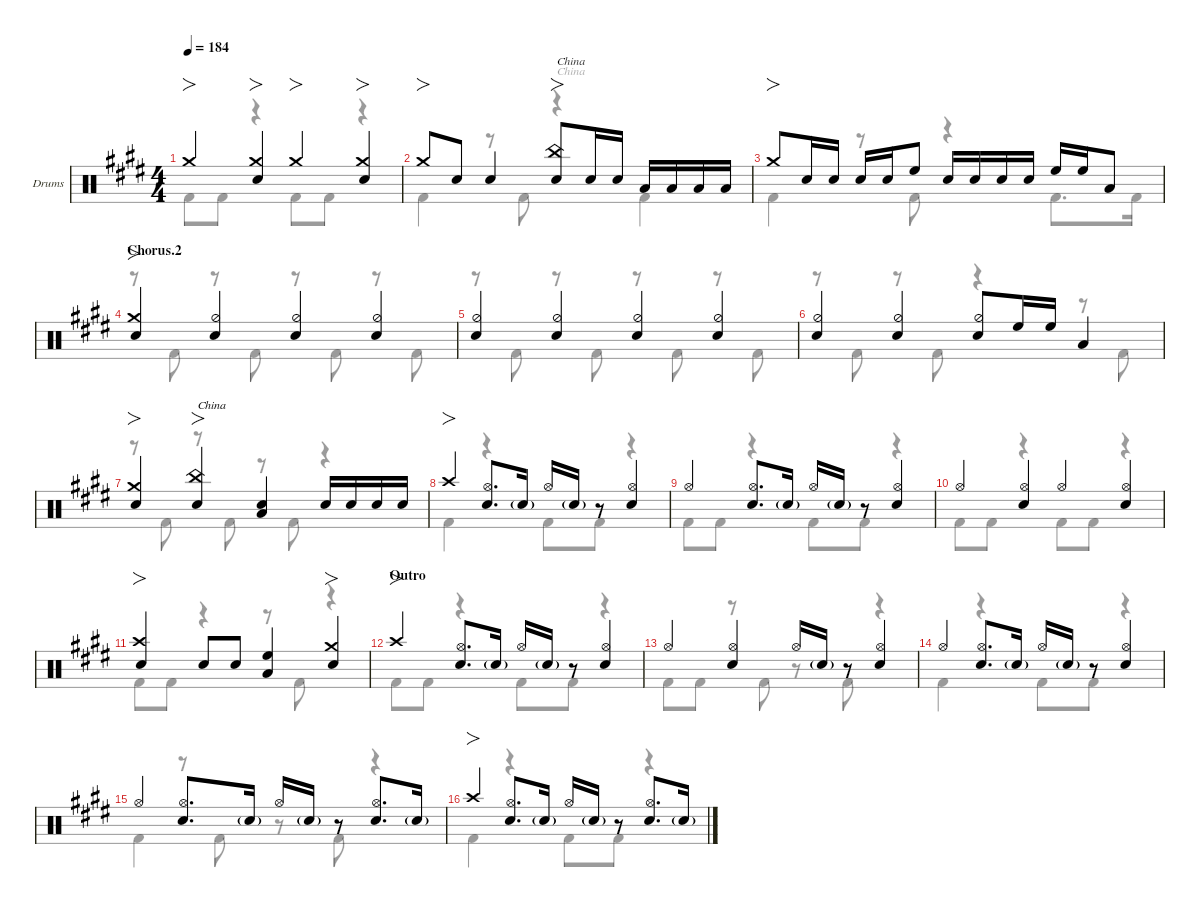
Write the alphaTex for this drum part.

\defaultSystemsLayout 4
\hideDynamics
\bracketExtendMode nobrackets
\firstSystemTrackNameOrientation horizontal
\track ("Drums" "Drums") {defaultSystemsLayout 4 instrument percussion}
\staff {score}
\articulation defaults
\voice
\ts (4 4)
\tempo 184
\clef neutral
\ks e "Crash medium (hit)"{acc forcenatural}.4{fo dy f}
("Crash medium (hit)"{acc forcenatural} "Snare (hit) 2"{acc forcenatural}).4{fo} "Crash medium (hit)"{acc forcenatural}.4{fo} ("Crash medium (hit)"{acc forcenatural} "Snare (hit) 2"{acc forcenatural}).4{fo} |
"Crash medium (hit)"{acc forcenatural}.8{fo} "Snare (hit) 2"{acc forcenatural}.8 "Snare (hit) 2"{acc forcenatural}.4 ("Snare (hit) 2"{acc forcenatural} "China (hit)"{acc forcenatural}).8{fo txt "China"} "Snare (hit) 2"{acc forcenatural}.16 "Snare (hit) 2"{acc forcenatural}.16{beam split} "Low Tom (hit)"{acc forcenatural}.16 "Low Tom (hit)"{acc forcenatural}.16 "Low Tom (hit)"{acc forcenatural}.16 "Low Tom (hit)"{acc forcenatural}.16 |
"Crash medium (hit)"{acc forcenatural}.8{fo} "Snare (hit) 2"{acc forcenatural}.16 "Snare (hit) 2"{acc forcenatural}.16{dy mf beam split} "Snare (hit) 2"{acc forcenatural}.16{dy f} "Snare (hit) 2"{acc forcenatural}.16{dy mf beam merge} "High Floor Tom (hit)"{acc forcenatural}.8{dy f} "Snare (hit) 2"{acc forcenatural}.16 "Snare (hit) 2"{acc forcenatural}.16{dy mf beam merge} "Snare (hit) 2"{acc forcenatural}.16{dy f} "Snare (hit) 2"{acc forcenatural}.16{dy mf beam split} "High Floor Tom (hit)"{acc forcenatural}.16{dy f} "High Floor Tom (hit)"{acc forcenatural}.16 "Low Tom (hit)"{acc forcenatural}.8 |
\section ("" "Chorus.2")
("Crash medium (hit)"{acc forcenatural} "Snare (hit) 2"{acc forcenatural}).4{fo} ("Hi-Hat (half)"{acc forcenatural} "Snare (hit) 2"{acc forcenatural}).4 ("Hi-Hat (half)"{acc forcenatural} "Snare (hit) 2"{acc forcenatural}).4 ("Hi-Hat (half)"{acc forcenatural} "Snare (hit) 2"{acc forcenatural}).4 |
("Hi-Hat (half)"{acc forcenatural} "Snare (hit) 2"{acc forcenatural}).4 ("Hi-Hat (half)"{acc forcenatural} "Snare (hit) 2"{acc forcenatural}).4 ("Hi-Hat (half)"{acc forcenatural} "Snare (hit) 2"{acc forcenatural}).4 ("Hi-Hat (half)"{acc forcenatural} "Snare (hit) 2"{acc forcenatural}).4 |
("Hi-Hat (half)"{acc forcenatural} "Snare (hit) 2"{acc forcenatural}).4 ("Hi-Hat (half)"{acc forcenatural} "Snare (hit) 2"{acc forcenatural}).4 ("Hi-Hat (half)"{acc forcenatural} "Snare (hit) 2"{acc forcenatural}).8 "High Floor Tom (hit)"{acc forcenatural}.16 "High Floor Tom (hit)"{acc forcenatural}.16 "Low Tom (hit)"{acc forcenatural}.4 |
("Crash medium (hit)"{acc forcenatural} "Snare (hit) 2"{acc forcenatural}).4{fo} ("China (hit)"{acc forcenatural} "Snare (hit) 2"{acc forcenatural}).4{fo txt "China"} ("Snare (hit) 2"{acc forcenatural} "Low Tom (hit)"{acc forcenatural}).4 "Snare (hit) 2"{acc forcenatural}.16 "Snare (hit) 2"{acc forcenatural}.16{dy mf beam merge} "Snare (hit) 2"{acc forcenatural}.16{dy f} "Snare (hit) 2"{acc forcenatural}.16{dy mf beam split} |
"Crash high (hit)"{acc forcenatural}.4{fo dy f} ("Hi-Hat (open)"{acc forcenatural} "Snare (hit) 2"{acc forcenatural}).8{d} "Snare (hit) 2"{g acc forcenatural}.16{dy mf} "Hi-Hat (open)"{acc forcenatural}.16{dy f} "Snare (hit) 2"{g acc forcenatural}.16{dy mf beam split} r.8 ("Hi-Hat (open)"{acc forcenatural} "Snare (hit) 2"{acc forcenatural}).4{dy f} |
"Hi-Hat (open)"{acc forcenatural}.4 ("Hi-Hat (open)"{acc forcenatural} "Snare (hit) 2"{acc forcenatural}).8{d} "Snare (hit) 2"{g acc forcenatural}.16{dy mf} "Hi-Hat (open)"{acc forcenatural}.16{dy f} "Snare (hit) 2"{g acc forcenatural}.16{dy mf beam split} r.8 ("Hi-Hat (open)"{acc forcenatural} "Snare (hit) 2"{acc forcenatural}).4{dy f} |
"Hi-Hat (open)"{acc forcenatural}.4 ("Hi-Hat (open)"{acc forcenatural} "Snare (hit) 2"{acc forcenatural}).4 "Hi-Hat (open)"{acc forcenatural}.4 ("Hi-Hat (open)"{acc forcenatural} "Snare (hit) 2"{acc forcenatural}).4 |
("Snare (hit) 2"{acc forcenatural} "Crash high (hit)"{acc forcenatural}).4{fo} "Snare (hit) 2"{acc forcenatural}.8 "Snare (hit) 2"{acc forcenatural}.8 ("Low Tom (hit)"{acc forcenatural} "High Floor Tom (hit)"{acc forcenatural}).4 ("Snare (hit) 2"{acc forcenatural} "Crash medium (hit)"{acc forcenatural}).4{fo} |
\section ("" "Outro")
"Crash high (hit)"{acc forcenatural}.4{fo} ("Hi-Hat (open)"{acc forcenatural} "Snare (hit) 2"{acc forcenatural}).8{d} "Snare (hit) 2"{g acc forcenatural}.16{dy mf} "Hi-Hat (open)"{acc forcenatural}.16{dy f} "Snare (hit) 2"{g acc forcenatural}.16{dy mf beam split} r.8 ("Hi-Hat (open)"{acc forcenatural} "Snare (hit) 2"{acc forcenatural}).4{dy f} |
"Hi-Hat (open)"{acc forcenatural}.4 ("Hi-Hat (open)"{acc forcenatural} "Snare (hit) 2"{acc forcenatural}).4 "Hi-Hat (open)"{acc forcenatural}.16 "Snare (hit) 2"{g acc forcenatural}.16{dy mf beam split} r.8 ("Hi-Hat (open)"{acc forcenatural} "Snare (hit) 2"{acc forcenatural}).4{dy f} |
"Hi-Hat (open)"{acc forcenatural}.4 ("Hi-Hat (open)"{acc forcenatural} "Snare (hit) 2"{acc forcenatural}).8{d} "Snare (hit) 2"{g acc forcenatural}.16{dy mf} "Hi-Hat (open)"{acc forcenatural}.16{dy f} "Snare (hit) 2"{g acc forcenatural}.16{dy mf beam split} r.8 ("Hi-Hat (open)"{acc forcenatural} "Snare (hit) 2"{acc forcenatural}).4{dy f} |
"Hi-Hat (open)"{acc forcenatural}.4 ("Hi-Hat (open)"{acc forcenatural} "Snare (hit) 2"{acc forcenatural}).8{d} "Snare (hit) 2"{g acc forcenatural}.16{dy mf} "Hi-Hat (open)"{acc forcenatural}.16{dy f} "Snare (hit) 2"{g acc forcenatural}.16{dy mf beam split} r.8 ("Hi-Hat (open)"{acc forcenatural} "Snare (hit) 2"{acc forcenatural}).8{d dy f} "Snare (hit) 2"{g acc forcenatural}.16{dy mf} |
"Crash high (hit)"{acc forcenatural}.4{fo dy f} ("Hi-Hat (open)"{acc forcenatural} "Snare (hit) 2"{acc forcenatural}).8{d} "Snare (hit) 2"{g acc forcenatural}.16{dy mf} "Hi-Hat (open)"{acc forcenatural}.16{dy f} "Snare (hit) 2"{g acc forcenatural}.16{dy mf beam split} r.8 ("Hi-Hat (open)"{acc forcenatural} "Snare (hit) 2"{acc forcenatural}).8{d dy f} "Snare (hit) 2"{g acc forcenatural}.16{dy mf}
\voice
\clef neutral
\ottava regular
\simile none
\ks e "Kick (hit) 2"{acc forcenatural}.8{dy f} "Kick (hit) 2"{acc forcenatural}.8
r.4 "Kick (hit) 2"{acc forcenatural}.8 "Kick (hit) 2"{acc forcenatural}.8 r.4 |
"Kick (hit) 2"{acc forcenatural}.4 r.8 "Kick (hit) 2"{acc forcenatural}.8 r.4{txt "China"} "Kick (hit) 2"{acc forcenatural}.4 |
"Kick (hit) 2"{acc forcenatural}.4 r.8 "Kick (hit) 2"{acc forcenatural}.8 r.4 "Kick (hit) 2"{acc forcenatural}.8{d} "Kick (hit) 2"{acc forcenatural}.16 |
r.8 "Kick (hit) 2"{acc forcenatural}.8 r.8 "Kick (hit) 2"{acc forcenatural}.8 r.8 "Kick (hit) 2"{acc forcenatural}.8 r.8 "Kick (hit) 2"{acc forcenatural}.8 |
r.8 "Kick (hit) 2"{acc forcenatural}.8 r.8 "Kick (hit) 2"{acc forcenatural}.8 r.8 "Kick (hit) 2"{acc forcenatural}.8 r.8 "Kick (hit) 2"{acc forcenatural}.8 |
r.8 "Kick (hit) 2"{acc forcenatural}.8 r.8 "Kick (hit) 2"{acc forcenatural}.8 r.4 r.8 "Kick (hit) 2"{acc forcenatural}.8 |
r.8 "Kick (hit) 2"{acc forcenatural}.8 r.8{txt "China"} "Kick (hit) 2"{acc forcenatural}.8 r.8 "Kick (hit) 2"{acc forcenatural}.8 r.4 |
"Kick (hit) 2"{acc forcenatural}.4 r.4 "Kick (hit) 2"{acc forcenatural}.8 "Kick (hit) 2"{acc forcenatural}.8 r.4 |
"Kick (hit) 2"{acc forcenatural}.8 "Kick (hit) 2"{acc forcenatural}.8 r.4 "Kick (hit) 2"{acc forcenatural}.8 "Kick (hit) 2"{acc forcenatural}.8 r.4 |
"Kick (hit) 2"{acc forcenatural}.8 "Kick (hit) 2"{acc forcenatural}.8 r.4 "Kick (hit) 2"{acc forcenatural}.8 "Kick (hit) 2"{acc forcenatural}.8 r.4 |
"Kick (hit) 2"{acc forcenatural}.8 "Kick (hit) 2"{acc forcenatural}.8 r.4 r.8 "Kick (hit) 2"{acc forcenatural}.8 r.4 |
"Kick (hit) 2"{acc forcenatural}.8 "Kick (hit) 2"{acc forcenatural}.8 r.4 "Kick (hit) 2"{acc forcenatural}.8 "Kick (hit) 2"{acc forcenatural}.8 r.4 |
"Kick (hit) 2"{acc forcenatural}.8 "Kick (hit) 2"{acc forcenatural}.8 r.8 "Kick (hit) 2"{acc forcenatural}.8 r.8 "Kick (hit) 2"{acc forcenatural}.8 r.4 |
"Kick (hit) 2"{acc forcenatural}.4 r.4 "Kick (hit) 2"{acc forcenatural}.8 "Kick (hit) 2"{acc forcenatural}.8 r.4 |
"Kick (hit) 2"{acc forcenatural}.4 r.8 "Kick (hit) 2"{acc forcenatural}.8 r.8 "Kick (hit) 2"{acc forcenatural}.8 r.4 |
"Kick (hit) 2"{acc forcenatural}.4 r.4 "Kick (hit) 2"{acc forcenatural}.8 "Kick (hit) 2"{acc forcenatural}.8 r.4
